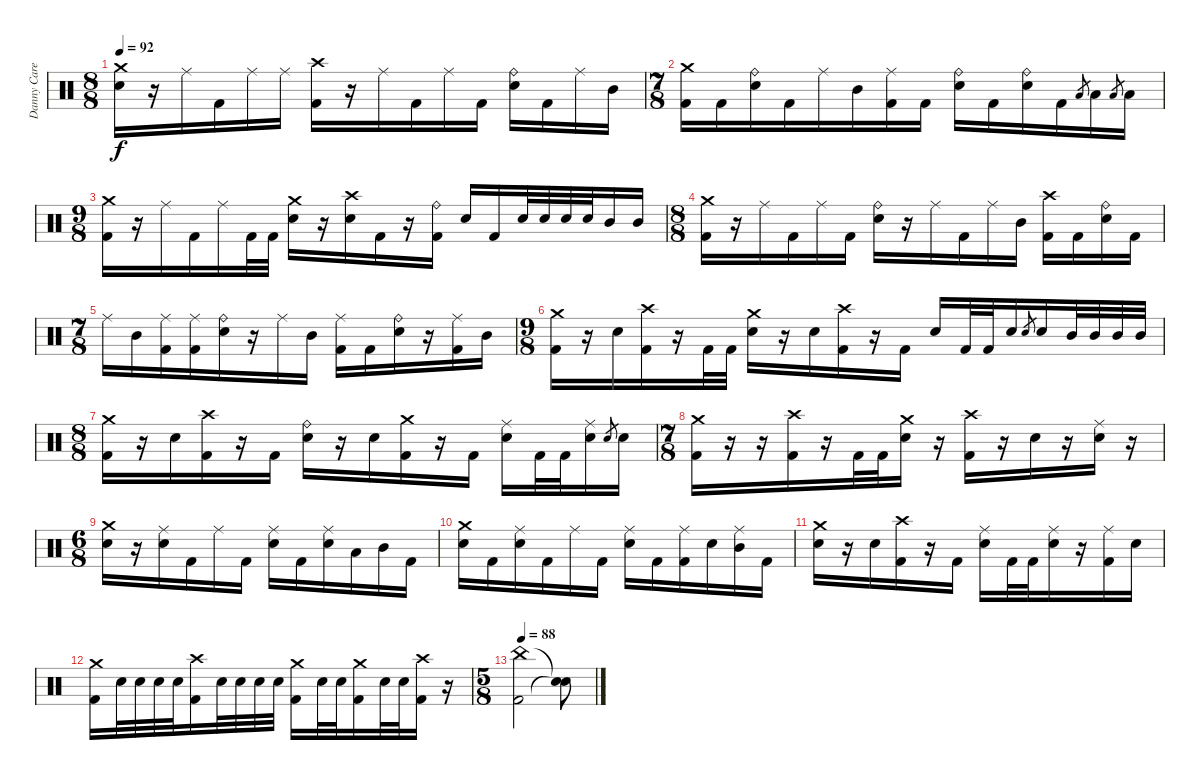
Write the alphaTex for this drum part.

\track ("Danny Carey" "Danny Care") {instrument percussion}
\staff {score}
\articulation defaults
\ts (8 8)
\tempo 92
\clef neutral
\ks c
("Crash medium (hit)" "Electric Snare (hit)").16{dy f} r.16 "Ride (middle)".16 "Kick (hit) 2".16 "Ride (middle)".16 "Ride (middle)".16 ("Crash high (hit)" "Kick (hit) 2").16 r.16 "Ride (middle)".16 "Kick (hit) 2".16 "Ride (middle)".16 "Kick (hit) 2".16 ("Ride (bell)" "Electric Snare (hit)").16 "Kick (hit) 2".16 "Ride (middle)".16 "Mid Tom (hit)".16 |
\ts (7 8)
("Crash medium (hit)" "Kick (hit) 2").16 "Kick (hit) 2".16 ("Ride (bell)" "Electric Snare (hit)").16 "Kick (hit) 2".16 "Ride (middle)".16 "Mid Tom (hit)".16 ("Ride (middle)" "Kick (hit) 2").16 "Kick (hit) 2".16 ("Ride (bell)" "Electric Snare (hit)").16 "Kick (hit) 2".16 ("Ride (bell)" "Electric Snare (hit)").16 "Kick (hit) 2".16 "Low Floor Tom (hit)".8{gr} "Low Floor Tom (hit)".16 "Low Floor Tom (hit)".8{gr} "Low Floor Tom (hit)".16 |
\ts (9 8)
("Crash medium (hit)" "Kick (hit) 2").16 r.16 "Ride (middle)".16 "Kick (hit) 2".16 "Ride (middle)".16 "Kick (hit) 2".32 "Kick (hit) 2".32 ("Crash medium (hit)" "Electric Snare (hit)").16 r.16 ("Crash high (hit)" "Electric Snare (hit)").16 "Kick (hit) 2".16 r.16 ("Ride (bell)" "Kick (hit) 2").16 "Electric Snare (hit)".16 "Kick (hit) 2".16 "Electric Snare (hit)".32 "Electric Snare (hit)".32 "Electric Snare (hit)".32 "Electric Snare (hit)".32 "Mid Tom (hit)".16 "Mid Tom (hit)".16 |
\ts (8 8)
("Crash medium (hit)" "Kick (hit) 2").16 r.16 "Ride (middle)".16 "Kick (hit) 2".16 "Ride (middle)".16 "Kick (hit) 2".16 ("Ride (bell)" "Electric Snare (hit)").16 r.16 "Ride (middle)".16 "Kick (hit) 2".16 "Ride (middle)".16 "Mid Tom (hit)".16 ("Crash high (hit)" "Kick (hit) 2").16 "Kick (hit) 2".16 ("Ride (bell)" "Electric Snare (hit)").16 "Kick (hit) 2".16 |
\ts (7 8)
"Ride (middle)".16 "Mid Tom (hit)".16 ("Ride (middle)" "Kick (hit) 2").16 ("Ride (middle)" "Kick (hit) 2").16 ("Ride (bell)" "Electric Snare (hit)").16 r.16 "Ride (middle)".16 "Mid Tom (hit)".16 ("Ride (middle)" "Kick (hit) 2").16 "Kick (hit) 2".16 ("Ride (bell)" "Electric Snare (hit)").16 r.16 ("Ride (middle)" "Kick (hit) 2").16 "Mid Tom (hit)".16 |
\ts (9 8)
("Crash medium (hit)" "Kick (hit) 2").16 r.16 "Electric Snare (hit)".16 ("Crash high (hit)" "Kick (hit) 2").16 r.16 "Kick (hit) 2".32 "Kick (hit) 2".32 ("Crash medium (hit)" "Electric Snare (hit)").16 r.16 "Electric Snare (hit)".16 ("Crash high (hit)" "Kick (hit) 2").16 r.16 "Kick (hit) 2".16 "Electric Snare (hit)".16 "Kick (hit) 2".32 "Kick (hit) 2".32 "Electric Snare (hit)".16 "Electric Snare (hit)".8{gr} "Electric Snare (hit)".16 "Mid Tom (hit)".32 "Mid Tom (hit)".32 "Mid Tom (hit)".32 "Mid Tom (hit)".32 |
\ts (8 8)
("Crash medium (hit)" "Kick (hit) 2").16 r.16 "Electric Snare (hit)".16 ("Crash high (hit)" "Kick (hit) 2").16 r.16 "Kick (hit) 2".16 ("Ride (bell)" "Electric Snare (hit)").16 r.16 "Electric Snare (hit)".16 ("Crash medium (hit)" "Kick (hit) 2").16 r.16 "Kick (hit) 2".16 ("Ride (middle)" "Electric Snare (hit)").16 "Kick (hit) 2".32 "Kick (hit) 2".32 ("Ride (middle)" "Electric Snare (hit)").16 "Electric Snare (hit)".8{gr} "Electric Snare (hit)".16 |
\ts (7 8)
("Crash medium (hit)" "Kick (hit) 2").16 r.16 r.16 ("Crash high (hit)" "Kick (hit) 2").16 r.16 "Kick (hit) 2".32 "Kick (hit) 2".32 ("Crash medium (hit)" "Electric Snare (hit)").16 r.16 ("Crash high (hit)" "Kick (hit) 2").16 r.16 "Electric Snare (hit)".16 r.16 ("Ride (middle)" "Electric Snare (hit)").16 r.16 |
\ts (6 8)
("Crash medium (hit)" "Electric Snare (hit)").16 r.16 ("Ride (middle)" "Electric Snare (hit)").16 "Kick (hit) 2".16 "Ride (middle)".16 "Kick (hit) 2".16 ("Ride (middle)" "Electric Snare (hit)").16 "Kick (hit) 2".16 ("Ride (middle)" "Electric Snare (hit)").16 "Low Tom (hit)".16 "Mid Tom (hit)".16 "Kick (hit) 2".16 |
("Crash medium (hit)" "Electric Snare (hit)").16 "Kick (hit) 2".16 ("Ride (middle)" "Electric Snare (hit)").16 "Kick (hit) 2".16 "Ride (middle)".16 "Kick (hit) 2".16 ("Ride (middle)" "Electric Snare (hit)").16 "Kick (hit) 2".16 ("Ride (middle)" "Kick (hit) 2").16 "Electric Snare (hit)".16 ("Ride (middle)" "Mid Tom (hit)").16 "Kick (hit) 2".16 |
("Crash medium (hit)" "Electric Snare (hit)").16 r.16 "Electric Snare (hit)".16 ("Crash high (hit)" "Kick (hit) 2").16 r.16 "Kick (hit) 2".16 ("Ride (middle)" "Electric Snare (hit)").16 "Kick (hit) 2".32 "Kick (hit) 2".32 ("Ride (middle)" "Electric Snare (hit)").16 r.16 ("Ride (middle)" "Kick (hit) 2").16 "Electric Snare (hit)".16 |
("Crash medium (hit)" "Kick (hit) 2").16 "Electric Snare (hit)".32 "Electric Snare (hit)".32 "Electric Snare (hit)".32 "Electric Snare (hit)".32 ("Crash high (hit)" "Kick (hit) 2").16 "Electric Snare (hit)".32 "Electric Snare (hit)".32 "Electric Snare (hit)".32 "Electric Snare (hit)".32 ("Crash medium (hit)" "Kick (hit) 2").16 "Electric Snare (hit)".32 "Electric Snare (hit)".32 ("Crash medium (hit)" "Kick (hit) 2").16 "Electric Snare (hit)".32 "Electric Snare (hit)".32 ("Crash high (hit)" "Kick (hit) 2").16 r.16 |
\ts (5 8)
\tempo 88
("China (hit)" "Kick (hit) 2").2 ("Snare (hit)"{t} "Snare (hit)"{t}).8
